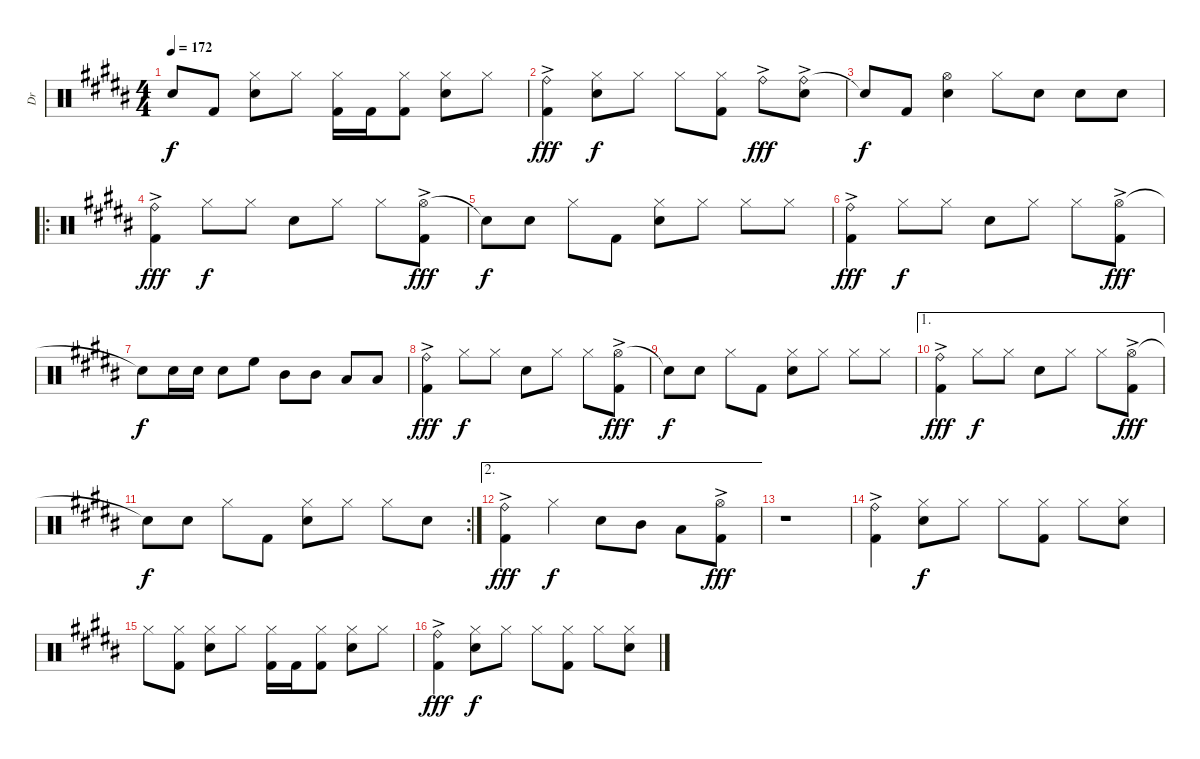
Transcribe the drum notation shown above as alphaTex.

\track ("Dr" "Dr") {instrument percussion}
\staff {score}
\articulation defaults
\ts (4 4)
\tempo 172
\clef neutral
\ks b "Snare (hit)"{t}.8{dy f} "Kick (hit) 2".8
("Hi-Hat (closed)" "Electric Snare (hit)").8 "Hi-Hat (closed)".8 ("Hi-Hat (closed)" "Kick (hit) 2").16 "Kick (hit) 2".16 ("Hi-Hat (closed)" "Kick (hit) 2").8 ("Hi-Hat (closed)" "Electric Snare (hit)").8 "Hi-Hat (closed)".8 |
("Ride (bell)"{ac} "Kick (hit) 2"{ac}).4{dy fff} ("Hi-Hat (closed)" "Electric Snare (hit)").8{dy f} "Hi-Hat (closed)".8 "Hi-Hat (closed)".8 ("Hi-Hat (closed)" "Kick (hit) 2").8 "Ride (bell)"{ac}.8{dy fff} ("Ride (bell)"{ac} "Electric Snare (hit)").8 |
"Snare (hit)"{t}.8{dy f} "Kick (hit) 2".8 ("Hi-Hat (open)" "Electric Snare (hit)").4 "Hi-Hat (closed)".8 "Electric Snare (hit)".8 "Electric Snare (hit)".8 "Electric Snare (hit)".8 |
\ro
("Ride (bell)"{ac} "Kick (hit) 2"{ac}).4{dy fff} "Hi-Hat (closed)".8{dy f} "Hi-Hat (closed)".8 "Electric Snare (hit)".8 "Hi-Hat (closed)".8 "Hi-Hat (closed)".8 ("Hi-Hat (open)"{ac} "Kick (hit) 2"{ac}).8{dy fff} |
"Snare (hit)"{t}.8{dy f} "Electric Snare (hit)".8 "Hi-Hat (closed)".8 "Kick (hit) 2".8 ("Hi-Hat (closed)" "Electric Snare (hit)").8 "Hi-Hat (closed)".8 "Hi-Hat (closed)".8 "Hi-Hat (closed)".8 |
("Ride (bell)"{ac} "Kick (hit) 2"{ac}).4{dy fff} "Hi-Hat (closed)".8{dy f} "Hi-Hat (closed)".8 "Electric Snare (hit)".8 "Hi-Hat (closed)".8 "Hi-Hat (closed)".8 ("Hi-Hat (open)"{ac} "Kick (hit) 2"{ac}).8{dy fff} |
"Snare (hit)"{t}.8{dy f} "Electric Snare (hit)".16 "Electric Snare (hit)".16 "Electric Snare (hit)".8 "High Floor Tom (hit)".8 "Mid Tom (hit)".8 "Mid Tom (hit)".8 "Low Tom (hit)".8 "Low Tom (hit)".8 |
("Ride (bell)"{ac} "Kick (hit) 2"{ac}).4{dy fff} "Hi-Hat (closed)".8{dy f} "Hi-Hat (closed)".8 "Electric Snare (hit)".8 "Hi-Hat (closed)".8 "Hi-Hat (closed)".8 ("Hi-Hat (open)"{ac} "Kick (hit) 2"{ac}).8{dy fff} |
"Snare (hit)"{t}.8{dy f} "Electric Snare (hit)".8 "Hi-Hat (closed)".8 "Kick (hit) 2".8 ("Hi-Hat (closed)" "Electric Snare (hit)").8 "Hi-Hat (closed)".8 "Hi-Hat (closed)".8 "Hi-Hat (closed)".8 |
\ae 1
("Ride (bell)"{ac} "Kick (hit) 2"{ac}).4{dy fff} "Hi-Hat (closed)".8{dy f} "Hi-Hat (closed)".8 "Electric Snare (hit)".8 "Hi-Hat (closed)".8 "Hi-Hat (closed)".8 ("Hi-Hat (open)"{ac} "Kick (hit) 2"{ac}).8{dy fff} |
\rc 2 "Snare (hit)"{t}.8{dy f} "Electric Snare (hit)".8 "Hi-Hat (closed)".8 "Kick (hit) 2".8
("Hi-Hat (closed)" "Electric Snare (hit)").8 "Hi-Hat (closed)".8 "Hi-Hat (closed)".8 "Electric Snare (hit)".8 |
\ae 2
("Ride (bell)"{ac} "Kick (hit) 2"{ac}).4{dy fff} "Hi-Hat (closed)".4{dy f} "Electric Snare (hit)".8 "Mid Tom (hit)".8 "Low Tom (hit)".8 ("Hi-Hat (open)"{ac} "Kick (hit) 2"{ac}).8{dy fff} |
r.1 |
("Ride (bell)"{ac} "Kick (hit) 2"{ac}).4 ("Hi-Hat (closed)" "Electric Snare (hit)").8{dy f} "Hi-Hat (closed)".8 "Hi-Hat (closed)".8 ("Hi-Hat (closed)" "Kick (hit) 2").8 "Hi-Hat (closed)".8 ("Hi-Hat (closed)" "Electric Snare (hit)").8 |
"Hi-Hat (closed)".8 ("Hi-Hat (closed)" "Kick (hit) 2").8 ("Hi-Hat (closed)" "Electric Snare (hit)").8 "Hi-Hat (closed)".8 ("Hi-Hat (closed)" "Kick (hit) 2").16 "Kick (hit) 2".16 ("Hi-Hat (closed)" "Kick (hit) 2").8 ("Hi-Hat (closed)" "Electric Snare (hit)").8 "Hi-Hat (closed)".8 |
("Ride (bell)"{ac} "Kick (hit) 2"{ac}).4{dy fff} ("Hi-Hat (closed)" "Electric Snare (hit)").8{dy f} "Hi-Hat (closed)".8 "Hi-Hat (closed)".8 ("Hi-Hat (closed)" "Kick (hit) 2").8 "Hi-Hat (closed)".8 ("Hi-Hat (closed)" "Electric Snare (hit)").8
